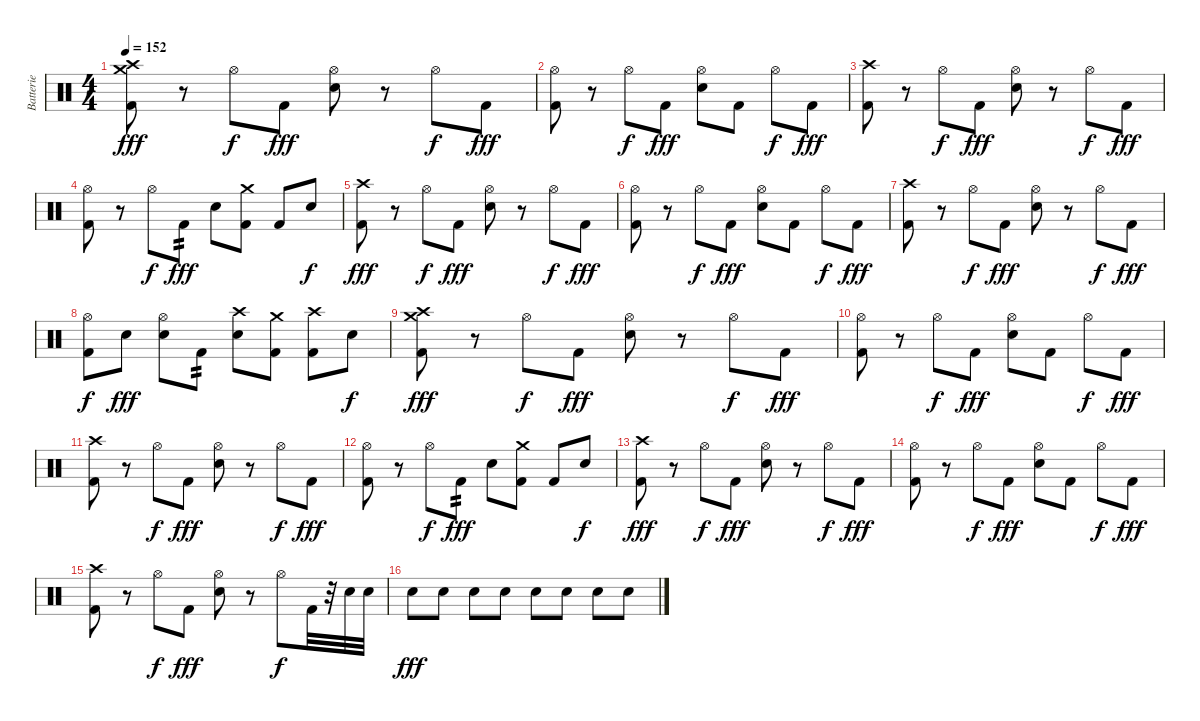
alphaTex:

\track ("Batterie" "Batterie") {instrument percussion}
\staff {score}
\articulation defaults
\ts (4 4)
\section ("" "")
\tempo 152
\clef neutral
\ks c
("Crash high (hit)" "Crash medium (hit)" "Kick (hit) 2").8{dy fff volume 8} r.8 "Hi-Hat (open)".8{dy f} "Kick (hit) 2".8{dy fff} ("Hi-Hat (open)" "Electric Snare (hit)").8 r.8 "Hi-Hat (open)".8{dy f} "Kick (hit) 2".8{dy fff} |
("Hi-Hat (open)" "Kick (hit) 2").8 r.8 "Hi-Hat (open)".8{dy f} "Kick (hit) 2".8{dy fff} ("Hi-Hat (open)" "Electric Snare (hit)").8 "Kick (hit) 2".8 "Hi-Hat (open)".8{dy f} "Kick (hit) 2".8{dy fff} |
("Crash high (hit)" "Kick (hit) 2").8 r.8 "Hi-Hat (open)".8{dy f} "Kick (hit) 2".8{dy fff} ("Hi-Hat (open)" "Electric Snare (hit)").8 r.8 "Hi-Hat (open)".8{dy f} "Kick (hit) 2".8{dy fff} |
("Hi-Hat (open)" "Kick (hit) 2").8 r.8 "Hi-Hat (open)".8{dy f} "Kick (hit) 2".8{tp 2 dy fff} "Electric Snare (hit)".8 ("Crash medium (hit)" "Kick (hit) 2").8 "Kick (hit) 2".8 "Electric Snare (hit)".8{dy f} |
("Crash high (hit)" "Kick (hit) 2").8{dy fff} r.8 "Hi-Hat (open)".8{dy f} "Kick (hit) 2".8{dy fff} ("Hi-Hat (open)" "Electric Snare (hit)").8 r.8 "Hi-Hat (open)".8{dy f} "Kick (hit) 2".8{dy fff} |
("Hi-Hat (open)" "Kick (hit) 2").8 r.8 "Hi-Hat (open)".8{dy f} "Kick (hit) 2".8{dy fff} ("Hi-Hat (open)" "Electric Snare (hit)").8 "Kick (hit) 2".8 "Hi-Hat (open)".8{dy f} "Kick (hit) 2".8{dy fff} |
("Crash high (hit)" "Kick (hit) 2").8 r.8 "Hi-Hat (open)".8{dy f} "Kick (hit) 2".8{dy fff} ("Hi-Hat (open)" "Electric Snare (hit)").8 r.8 "Hi-Hat (open)".8{dy f} "Kick (hit) 2".8{dy fff} |
("Hi-Hat (open)" "Kick (hit) 2").8{dy f} "Electric Snare (hit)".8{dy fff} ("Hi-Hat (open)" "Electric Snare (hit)").8 "Kick (hit) 2".8{tp 2} ("Crash high (hit)" "Electric Snare (hit)").8 ("Crash medium (hit)" "Kick (hit) 2").8 ("Crash high (hit)" "Kick (hit) 2").8 "Electric Snare (hit)".8{dy f} |
("Crash high (hit)" "Crash medium (hit)" "Kick (hit) 2").8{dy fff volume 8} r.8 "Hi-Hat (open)".8{dy f} "Kick (hit) 2".8{dy fff} ("Hi-Hat (open)" "Electric Snare (hit)").8 r.8 "Hi-Hat (open)".8{dy f} "Kick (hit) 2".8{dy fff} |
("Hi-Hat (open)" "Kick (hit) 2").8 r.8 "Hi-Hat (open)".8{dy f} "Kick (hit) 2".8{dy fff} ("Hi-Hat (open)" "Electric Snare (hit)").8 "Kick (hit) 2".8 "Hi-Hat (open)".8{dy f} "Kick (hit) 2".8{dy fff} |
("Crash high (hit)" "Kick (hit) 2").8 r.8 "Hi-Hat (open)".8{dy f} "Kick (hit) 2".8{dy fff} ("Hi-Hat (open)" "Electric Snare (hit)").8 r.8 "Hi-Hat (open)".8{dy f} "Kick (hit) 2".8{dy fff} |
("Hi-Hat (open)" "Kick (hit) 2").8 r.8 "Hi-Hat (open)".8{dy f} "Kick (hit) 2".8{tp 2 dy fff} "Electric Snare (hit)".8 ("Crash medium (hit)" "Kick (hit) 2").8 "Kick (hit) 2".8 "Electric Snare (hit)".8{dy f} |
("Crash high (hit)" "Kick (hit) 2").8{dy fff} r.8 "Hi-Hat (open)".8{dy f} "Kick (hit) 2".8{dy fff} ("Hi-Hat (open)" "Electric Snare (hit)").8 r.8 "Hi-Hat (open)".8{dy f} "Kick (hit) 2".8{dy fff} |
("Hi-Hat (open)" "Kick (hit) 2").8 r.8 "Hi-Hat (open)".8{dy f} "Kick (hit) 2".8{dy fff} ("Hi-Hat (open)" "Electric Snare (hit)").8 "Kick (hit) 2".8 "Hi-Hat (open)".8{dy f} "Kick (hit) 2".8{dy fff} |
("Crash high (hit)" "Kick (hit) 2").8 r.8 "Hi-Hat (open)".8{dy f} "Kick (hit) 2".8{dy fff} ("Hi-Hat (open)" "Electric Snare (hit)").8 r.8 "Hi-Hat (open)".8{dy f} "Kick (hit) 2".32 r.32 "Electric Snare (hit)".32 "Electric Snare (hit)".32 |
"Electric Snare (hit)".8{dy fff} "Electric Snare (hit)".8 "Electric Snare (hit)".8 "Electric Snare (hit)".8 "Electric Snare (hit)".8 "Electric Snare (hit)".8 "Electric Snare (hit)".8 "Electric Snare (hit)".8
